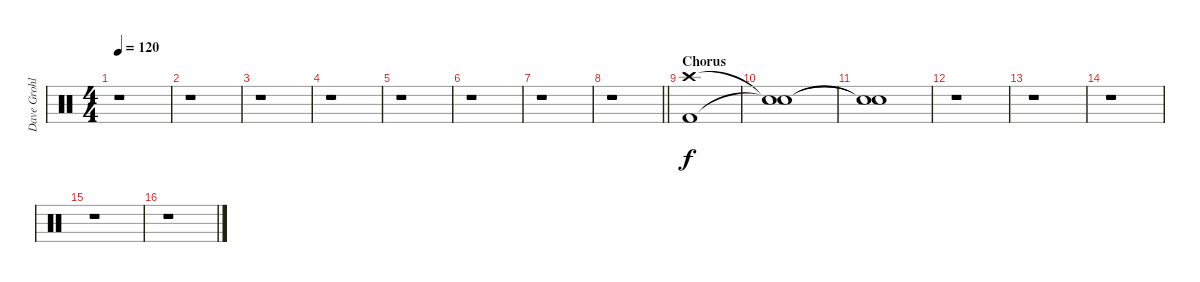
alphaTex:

\track ("Dave Grohl - Drums" "Dave Grohl") {instrument percussion}
\staff {score}
\articulation defaults
\ts (4 4)
\section ("" "")
\tempo 120
\clef neutral
\ks c
r.1{dy f} |
r.1 |
r.1 |
r.1 |
r.1 |
r.1 |
r.1 |
\barLineRight lightlight
r.1 |
\section ("" "Chorus")
("Kick (hit) 2" "Crash high (hit)").1 |
("Snare (hit)"{t} "Snare (hit)"{t}).1 |
("Snare (hit)"{t} "Snare (hit)"{t}).1 |
r.1 |
r.1 |
r.1 |
r.1 |
r.1
